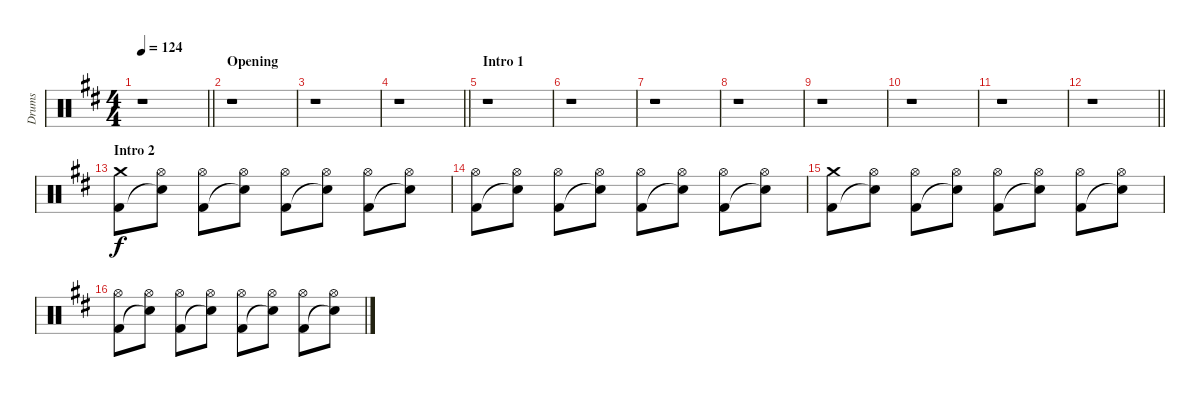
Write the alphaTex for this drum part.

\track ("Drums" "Drums") {instrument percussion}
\staff {score}
\articulation defaults
\ts (4 4)
\tempo 124
\clef neutral
\barLineRight lightlight
\ks d
r.1{dy f} |
\section ("" "Opening")
r.1 |
r.1 |
\barLineRight lightlight
r.1 |
\section ("" "Intro 1")
r.1 |
r.1 |
r.1 |
r.1 |
r.1 |
r.1 |
r.1 |
\barLineRight lightlight
r.1 |
\section ("" "Intro 2")
("Crash medium (hit)" "Kick (hit) 2").8 ("Hi-Hat (open)" "Snare (hit)"{t}).8 ("Hi-Hat (open)" "Kick (hit) 2").8 ("Hi-Hat (open)" "Snare (hit)"{t}).8 ("Hi-Hat (open)" "Kick (hit) 2").8 ("Hi-Hat (open)" "Snare (hit)"{t}).8 ("Hi-Hat (open)" "Kick (hit) 2").8 ("Hi-Hat (open)" "Snare (hit)"{t}).8 |
("Hi-Hat (open)" "Kick (hit) 2").8 ("Hi-Hat (open)" "Snare (hit)"{t}).8 ("Hi-Hat (open)" "Kick (hit) 2").8 ("Hi-Hat (open)" "Snare (hit)"{t}).8 ("Hi-Hat (open)" "Kick (hit) 2").8 ("Hi-Hat (open)" "Snare (hit)"{t}).8 ("Hi-Hat (open)" "Kick (hit) 2").8 ("Hi-Hat (open)" "Snare (hit)"{t}).8 |
("Crash medium (hit)" "Kick (hit) 2").8 ("Hi-Hat (open)" "Snare (hit)"{t}).8 ("Hi-Hat (open)" "Kick (hit) 2").8 ("Hi-Hat (open)" "Snare (hit)"{t}).8 ("Hi-Hat (open)" "Kick (hit) 2").8 ("Hi-Hat (open)" "Snare (hit)"{t}).8 ("Hi-Hat (open)" "Kick (hit) 2").8 ("Hi-Hat (open)" "Snare (hit)"{t}).8 |
("Hi-Hat (open)" "Kick (hit) 2").8 ("Hi-Hat (open)" "Snare (hit)"{t}).8 ("Hi-Hat (open)" "Kick (hit) 2").8 ("Hi-Hat (open)" "Snare (hit)"{t}).8 ("Hi-Hat (open)" "Kick (hit) 2").8 ("Hi-Hat (open)" "Snare (hit)"{t}).8 ("Hi-Hat (open)" "Kick (hit) 2").8 ("Hi-Hat (open)" "Snare (hit)"{t}).8
